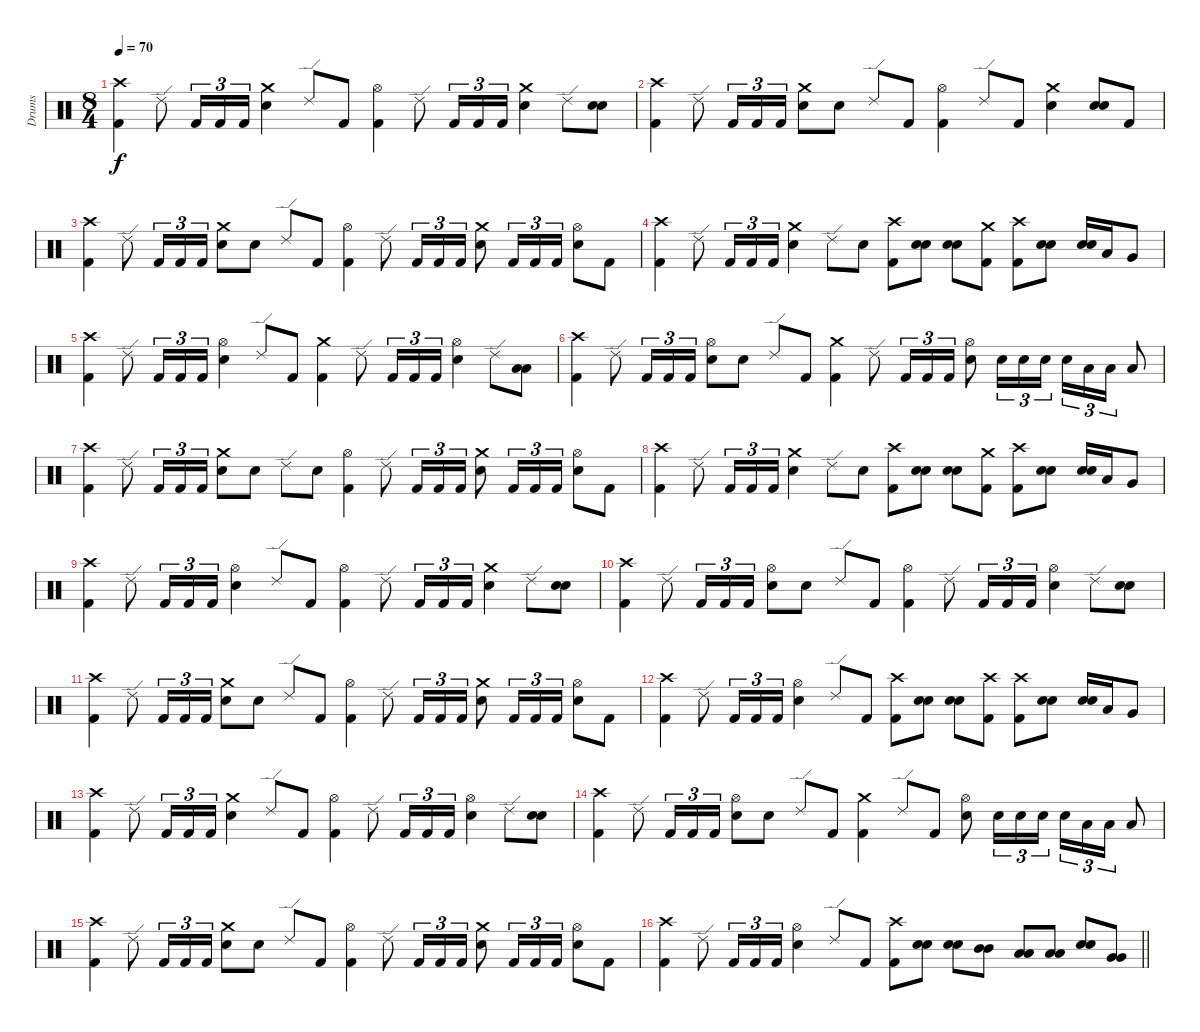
\track ("Drums" "Drums") {instrument percussion}
\staff {score}
\articulation defaults
\ts (8 4)
\tempo 70
\clef neutral
\ks c
("Crash high (hit)" "Kick (hit) 2").4{dy f} "Ride (edge) 2".8 "Kick (hit) 2".16{tu (3 2)} "Kick (hit) 2".16{tu (3 2)} "Kick (hit) 2".16{tu (3 2)} ("Crash medium (hit)" "Electric Snare (hit)").4 "Ride (edge) 2".8 "Kick (hit) 2".8 ("Hi-Hat (open)" "Kick (hit) 2").4 "Ride (edge) 2".8 "Kick (hit) 2".16{tu (3 2)} "Kick (hit) 2".16{tu (3 2)} "Kick (hit) 2".16{tu (3 2)} ("Crash medium (hit)" "Electric Snare (hit)").4 "Ride (edge) 2".8 ("Electric Snare (hit)" "Electric Snare (hit)").8{bu 60} |
("Crash high (hit)" "Kick (hit) 2").4 "Ride (edge) 2".8 "Kick (hit) 2".16{tu (3 2)} "Kick (hit) 2".16{tu (3 2)} "Kick (hit) 2".16{tu (3 2)} ("Crash medium (hit)" "Electric Snare (hit)").8 "Electric Snare (hit)".8 "Ride (edge) 2".8 "Kick (hit) 2".8 ("Hi-Hat (open)" "Kick (hit) 2").4 "Ride (edge) 2".8 "Kick (hit) 2".8 ("Crash medium (hit)" "Electric Snare (hit)").4 ("Electric Snare (hit)" "Electric Snare (hit)").8{bu 60} "Kick (hit) 2".8 |
("Crash high (hit)" "Kick (hit) 2").4 "Ride (edge) 2".8 "Kick (hit) 2".16{tu (3 2)} "Kick (hit) 2".16{tu (3 2)} "Kick (hit) 2".16{tu (3 2)} ("Crash medium (hit)" "Electric Snare (hit)").8 "Electric Snare (hit)".8 "Ride (edge) 2".8 "Kick (hit) 2".8 ("Hi-Hat (open)" "Kick (hit) 2").4 "Ride (edge) 2".8 "Kick (hit) 2".16{tu (3 2)} "Kick (hit) 2".16{tu (3 2)} "Kick (hit) 2".16{tu (3 2)} ("Crash medium (hit)" "Electric Snare (hit)").8 "Kick (hit) 2".16{tu (3 2)} "Kick (hit) 2".16{tu (3 2)} "Kick (hit) 2".16{tu (3 2)} ("Hi-Hat (open)" "Electric Snare (hit)").8 "Kick (hit) 2".8 |
("Crash high (hit)" "Kick (hit) 2").4 "Ride (edge) 2".8 "Kick (hit) 2".16{tu (3 2)} "Kick (hit) 2".16{tu (3 2)} "Kick (hit) 2".16{tu (3 2)} ("Crash medium (hit)" "Electric Snare (hit)").4 "Ride (edge) 2".8 "Electric Snare (hit)".8 ("Crash high (hit)" "Kick (hit) 2").8 ("Electric Snare (hit)" "Electric Snare (hit)").8{bu 60} ("Electric Snare (hit)" "Electric Snare (hit)").8{bu 60} ("Crash medium (hit)" "Kick (hit) 2").8 ("Crash high (hit)" "Kick (hit) 2").8 ("Electric Snare (hit)" "Electric Snare (hit)").8{bu 60} ("Electric Snare (hit)" "Electric Snare (hit)").16{bu 60} "Low Tom (hit)".16 "Very Low Tom (hit)".8 |
("Crash high (hit)" "Kick (hit) 2").4 "Ride (edge) 2".8 "Kick (hit) 2".16{tu (3 2)} "Kick (hit) 2".16{tu (3 2)} "Kick (hit) 2".16{tu (3 2)} ("Hi-Hat (open)" "Electric Snare (hit)").4 "Ride (edge) 2".8 "Kick (hit) 2".8 ("Crash medium (hit)" "Kick (hit) 2").4 "Ride (edge) 2".8 "Kick (hit) 2".16{tu (3 2)} "Kick (hit) 2".16{tu (3 2)} "Kick (hit) 2".16{tu (3 2)} ("Hi-Hat (open)" "Electric Snare (hit)").4 "Ride (edge) 2".8 ("Low Tom (hit)" "Low Tom (hit)").8{bu 60} |
("Crash high (hit)" "Kick (hit) 2").4 "Ride (edge) 2".8 "Kick (hit) 2".16{tu (3 2)} "Kick (hit) 2".16{tu (3 2)} "Kick (hit) 2".16{tu (3 2)} ("Hi-Hat (open)" "Electric Snare (hit)").8 "Electric Snare (hit)".8 "Ride (edge) 2".8 "Kick (hit) 2".8 ("Crash medium (hit)" "Kick (hit) 2").4 "Ride (edge) 2".8 "Kick (hit) 2".16{tu (3 2)} "Kick (hit) 2".16{tu (3 2)} "Kick (hit) 2".16{tu (3 2)} ("Hi-Hat (open)" "Electric Snare (hit)").8 "Electric Snare (hit)".16{tu (3 2)} "Electric Snare (hit)".16{tu (3 2)} "Electric Snare (hit)".16{tu (3 2)} "Electric Snare (hit)".16{tu (3 2)} "Low Tom (hit)".16{tu (3 2)} "Low Tom (hit)".16{tu (3 2)} "Low Tom (hit)".8 |
("Crash high (hit)" "Kick (hit) 2").4 "Ride (edge) 2".8 "Kick (hit) 2".16{tu (3 2)} "Kick (hit) 2".16{tu (3 2)} "Kick (hit) 2".16{tu (3 2)} ("Crash medium (hit)" "Electric Snare (hit)").8 "Electric Snare (hit)".8 "Ride (edge) 2".8 "Electric Snare (hit)".8 ("Hi-Hat (open)" "Kick (hit) 2").4 "Ride (edge) 2".8 "Kick (hit) 2".16{tu (3 2)} "Kick (hit) 2".16{tu (3 2)} "Kick (hit) 2".16{tu (3 2)} ("Crash medium (hit)" "Electric Snare (hit)").8 "Kick (hit) 2".16{tu (3 2)} "Kick (hit) 2".16{tu (3 2)} "Kick (hit) 2".16{tu (3 2)} ("Hi-Hat (open)" "Electric Snare (hit)").8 "Kick (hit) 2".8 |
("Crash high (hit)" "Kick (hit) 2").4 "Ride (edge) 2".8 "Kick (hit) 2".16{tu (3 2)} "Kick (hit) 2".16{tu (3 2)} "Kick (hit) 2".16{tu (3 2)} ("Crash medium (hit)" "Electric Snare (hit)").4 "Ride (edge) 2".8 "Electric Snare (hit)".8 ("Crash high (hit)" "Kick (hit) 2").8 ("Electric Snare (hit)" "Electric Snare (hit)").8{bu 60} ("Electric Snare (hit)" "Electric Snare (hit)").8{bu 60} ("Crash medium (hit)" "Kick (hit) 2").8 ("Crash high (hit)" "Kick (hit) 2").8 ("Electric Snare (hit)" "Electric Snare (hit)").8{bu 60} ("Electric Snare (hit)" "Electric Snare (hit)").16{bu 60} "Low Tom (hit)".16 "Very Low Tom (hit)".8 |
("Crash high (hit)" "Kick (hit) 2").4 "Ride (edge) 2".8 "Kick (hit) 2".16{tu (3 2)} "Kick (hit) 2".16{tu (3 2)} "Kick (hit) 2".16{tu (3 2)} ("Hi-Hat (open)" "Electric Snare (hit)").4 "Ride (edge) 2".8 "Kick (hit) 2".8 ("Hi-Hat (open)" "Kick (hit) 2").4 "Ride (edge) 2".8 "Kick (hit) 2".16{tu (3 2)} "Kick (hit) 2".16{tu (3 2)} "Kick (hit) 2".16{tu (3 2)} ("Crash medium (hit)" "Electric Snare (hit)").4 "Ride (edge) 2".8 ("Electric Snare (hit)" "Electric Snare (hit)").8{bu 60} |
("Crash high (hit)" "Kick (hit) 2").4 "Ride (edge) 2".8 "Kick (hit) 2".16{tu (3 2)} "Kick (hit) 2".16{tu (3 2)} "Kick (hit) 2".16{tu (3 2)} ("Hi-Hat (open)" "Electric Snare (hit)").8 "Electric Snare (hit)".8 "Ride (edge) 2".8 "Kick (hit) 2".8 ("Hi-Hat (open)" "Kick (hit) 2").4 "Ride (edge) 2".8 "Kick (hit) 2".16{tu (3 2)} "Kick (hit) 2".16{tu (3 2)} "Kick (hit) 2".16{tu (3 2)} ("Hi-Hat (open)" "Electric Snare (hit)").4 "Ride (edge) 2".8 ("Electric Snare (hit)" "Electric Snare (hit)").8{bu 60} |
("Crash high (hit)" "Kick (hit) 2").4 "Ride (edge) 2".8 "Kick (hit) 2".16{tu (3 2)} "Kick (hit) 2".16{tu (3 2)} "Kick (hit) 2".16{tu (3 2)} ("Crash medium (hit)" "Electric Snare (hit)").8 "Electric Snare (hit)".8 "Ride (edge) 2".8 "Kick (hit) 2".8 ("Hi-Hat (open)" "Kick (hit) 2").4 "Ride (edge) 2".8 "Kick (hit) 2".16{tu (3 2)} "Kick (hit) 2".16{tu (3 2)} "Kick (hit) 2".16{tu (3 2)} ("Crash medium (hit)" "Electric Snare (hit)").8 "Kick (hit) 2".16{tu (3 2)} "Kick (hit) 2".16{tu (3 2)} "Kick (hit) 2".16{tu (3 2)} ("Hi-Hat (open)" "Electric Snare (hit)").8 "Kick (hit) 2".8 |
("Crash high (hit)" "Kick (hit) 2").4 "Ride (edge) 2".8 "Kick (hit) 2".16{tu (3 2)} "Kick (hit) 2".16{tu (3 2)} "Kick (hit) 2".16{tu (3 2)} ("Hi-Hat (open)" "Electric Snare (hit)").4 "Ride (edge) 2".8 "Kick (hit) 2".8 ("Crash high (hit)" "Kick (hit) 2").8 ("Electric Snare (hit)" "Electric Snare (hit)").8{bu 60} ("Electric Snare (hit)" "Electric Snare (hit)").8{bu 60} ("Crash high (hit)" "Kick (hit) 2").8 ("Crash high (hit)" "Kick (hit) 2").8 ("Electric Snare (hit)" "Electric Snare (hit)").8{bu 60} ("Electric Snare (hit)" "Electric Snare (hit)").16{bu 60} "Low Tom (hit)".16 "Very Low Tom (hit)".8 |
("Crash high (hit)" "Kick (hit) 2").4 "Ride (edge) 2".8 "Kick (hit) 2".16{tu (3 2)} "Kick (hit) 2".16{tu (3 2)} "Kick (hit) 2".16{tu (3 2)} ("Crash medium (hit)" "Electric Snare (hit)").4 "Ride (edge) 2".8 "Kick (hit) 2".8 ("Hi-Hat (open)" "Kick (hit) 2").4 "Ride (edge) 2".8 "Kick (hit) 2".16{tu (3 2)} "Kick (hit) 2".16{tu (3 2)} "Kick (hit) 2".16{tu (3 2)} ("Hi-Hat (open)" "Electric Snare (hit)").4 "Ride (edge) 2".8 ("Electric Snare (hit)" "Electric Snare (hit)").8{bu 60} |
("Crash high (hit)" "Kick (hit) 2").4 "Ride (edge) 2".8 "Kick (hit) 2".16{tu (3 2)} "Kick (hit) 2".16{tu (3 2)} "Kick (hit) 2".16{tu (3 2)} ("Hi-Hat (open)" "Electric Snare (hit)").8 "Electric Snare (hit)".8 "Ride (edge) 2".8 "Kick (hit) 2".8 ("Crash medium (hit)" "Kick (hit) 2").4 "Ride (edge) 2".8 "Kick (hit) 2".8 ("Hi-Hat (open)" "Electric Snare (hit)").8 "Electric Snare (hit)".16{tu (3 2)} "Electric Snare (hit)".16{tu (3 2)} "Electric Snare (hit)".16{tu (3 2)} "Electric Snare (hit)".16{tu (3 2)} "Low Tom (hit)".16{tu (3 2)} "Low Tom (hit)".16{tu (3 2)} "Low Tom (hit)".8 |
("Crash high (hit)" "Kick (hit) 2").4 "Ride (edge) 2".8 "Kick (hit) 2".16{tu (3 2)} "Kick (hit) 2".16{tu (3 2)} "Kick (hit) 2".16{tu (3 2)} ("Crash medium (hit)" "Electric Snare (hit)").8 "Electric Snare (hit)".8 "Ride (edge) 2".8 "Kick (hit) 2".8 ("Hi-Hat (open)" "Kick (hit) 2").4 "Ride (edge) 2".8 "Kick (hit) 2".16{tu (3 2)} "Kick (hit) 2".16{tu (3 2)} "Kick (hit) 2".16{tu (3 2)} ("Crash medium (hit)" "Electric Snare (hit)").8 "Kick (hit) 2".16{tu (3 2)} "Kick (hit) 2".16{tu (3 2)} "Kick (hit) 2".16{tu (3 2)} ("Hi-Hat (open)" "Electric Snare (hit)").8 "Kick (hit) 2".8 |
\barLineRight lightlight
("Crash high (hit)" "Kick (hit) 2").4 "Ride (edge) 2".8 "Kick (hit) 2".16{tu (3 2)} "Kick (hit) 2".16{tu (3 2)} "Kick (hit) 2".16{tu (3 2)} ("Hi-Hat (open)" "Electric Snare (hit)").4 "Ride (edge) 2".8 "Kick (hit) 2".8 ("Crash high (hit)" "Kick (hit) 2").8 ("Electric Snare (hit)" "Electric Snare (hit)").8{bu 60} ("Electric Snare (hit)" "Electric Snare (hit)").8{bu 60} ("Mid Tom (hit)" "Mid Tom (hit)").8{bu 60} ("Low Tom (hit)" "Low Tom (hit)").8{bu 60} ("Low Tom (hit)" "Low Tom (hit)").8{bu 60} ("Electric Snare (hit)" "Electric Snare (hit)").8{bu 60} ("Very Low Tom (hit)" "Very Low Tom (hit)").8{bu 60}
